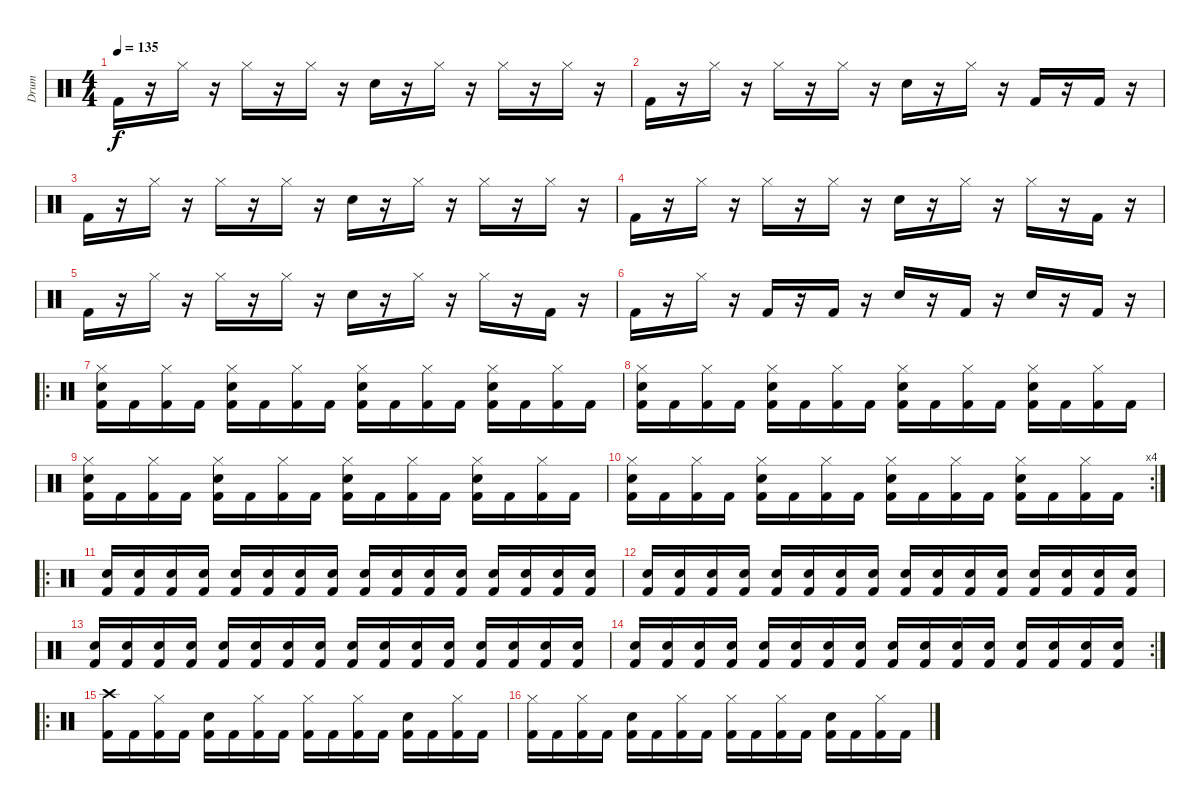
\track ("Drum" "Drum") {instrument percussion}
\staff {score}
\articulation defaults
\ts (4 4)
\tempo 135
\clef neutral
\ks c "Kick (hit) 2".16{dy f}
r.16 "Hi-Hat (closed)".16 r.16 "Hi-Hat (closed)".16 r.16 "Hi-Hat (closed)".16 r.16 "Electric Snare (hit)".16 r.16 "Hi-Hat (closed)".16 r.16 "Hi-Hat (closed)".16 r.16 "Hi-Hat (closed)".16 r.16 |
"Kick (hit) 2".16 r.16 "Hi-Hat (closed)".16 r.16 "Hi-Hat (closed)".16 r.16 "Hi-Hat (closed)".16 r.16 "Electric Snare (hit)".16 r.16 "Hi-Hat (closed)".16 r.16 "Kick (hit) 2".16 r.16 "Kick (hit) 2".16 r.16 |
"Kick (hit) 2".16 r.16 "Hi-Hat (closed)".16 r.16 "Hi-Hat (closed)".16 r.16 "Hi-Hat (closed)".16 r.16 "Electric Snare (hit)".16 r.16 "Hi-Hat (closed)".16 r.16 "Hi-Hat (closed)".16 r.16 "Hi-Hat (closed)".16 r.16 |
"Kick (hit) 2".16 r.16 "Hi-Hat (closed)".16 r.16 "Hi-Hat (closed)".16 r.16 "Hi-Hat (closed)".16 r.16 "Electric Snare (hit)".16 r.16 "Hi-Hat (closed)".16 r.16 "Hi-Hat (closed)".16 r.16 "Kick (hit) 2".16 r.16 |
"Kick (hit) 2".16 r.16 "Hi-Hat (closed)".16 r.16 "Hi-Hat (closed)".16 r.16 "Hi-Hat (closed)".16 r.16 "Electric Snare (hit)".16 r.16 "Hi-Hat (closed)".16 r.16 "Hi-Hat (closed)".16 r.16 "Kick (hit) 2".16 r.16 |
"Kick (hit) 2".16 r.16 "Hi-Hat (closed)".16 r.16 "Kick (hit) 2".16 r.16 "Kick (hit) 2".16 r.16 "Electric Snare (hit)".16 r.16 "Kick (hit) 2".16 r.16 "Electric Snare (hit)".16 r.16 "Kick (hit) 2".16 r.16 |
\ro
("Hi-Hat (closed)" "Electric Snare (hit)" "Kick (hit) 2").16 "Kick (hit) 2".16 ("Hi-Hat (closed)" "Kick (hit) 2").16 "Kick (hit) 2".16 ("Hi-Hat (closed)" "Electric Snare (hit)" "Kick (hit) 2").16 "Kick (hit) 2".16 ("Hi-Hat (closed)" "Kick (hit) 2").16 "Kick (hit) 2".16 ("Hi-Hat (closed)" "Electric Snare (hit)" "Kick (hit) 2").16 "Kick (hit) 2".16 ("Hi-Hat (closed)" "Kick (hit) 2").16 "Kick (hit) 2".16 ("Hi-Hat (closed)" "Electric Snare (hit)" "Kick (hit) 2").16 "Kick (hit) 2".16 ("Hi-Hat (closed)" "Kick (hit) 2").16 "Kick (hit) 2".16 |
("Hi-Hat (closed)" "Electric Snare (hit)" "Kick (hit) 2").16 "Kick (hit) 2".16 ("Hi-Hat (closed)" "Kick (hit) 2").16 "Kick (hit) 2".16 ("Hi-Hat (closed)" "Electric Snare (hit)" "Kick (hit) 2").16 "Kick (hit) 2".16 ("Hi-Hat (closed)" "Kick (hit) 2").16 "Kick (hit) 2".16 ("Hi-Hat (closed)" "Electric Snare (hit)" "Kick (hit) 2").16 "Kick (hit) 2".16 ("Hi-Hat (closed)" "Kick (hit) 2").16 "Kick (hit) 2".16 ("Hi-Hat (closed)" "Electric Snare (hit)" "Kick (hit) 2").16 "Kick (hit) 2".16 ("Hi-Hat (closed)" "Kick (hit) 2").16 "Kick (hit) 2".16 |
("Hi-Hat (closed)" "Electric Snare (hit)" "Kick (hit) 2").16 "Kick (hit) 2".16 ("Hi-Hat (closed)" "Kick (hit) 2").16 "Kick (hit) 2".16 ("Hi-Hat (closed)" "Electric Snare (hit)" "Kick (hit) 2").16 "Kick (hit) 2".16 ("Hi-Hat (closed)" "Kick (hit) 2").16 "Kick (hit) 2".16 ("Hi-Hat (closed)" "Electric Snare (hit)" "Kick (hit) 2").16 "Kick (hit) 2".16 ("Hi-Hat (closed)" "Kick (hit) 2").16 "Kick (hit) 2".16 ("Hi-Hat (closed)" "Electric Snare (hit)" "Kick (hit) 2").16 "Kick (hit) 2".16 ("Hi-Hat (closed)" "Kick (hit) 2").16 "Kick (hit) 2".16 |
\rc 4
("Hi-Hat (closed)" "Electric Snare (hit)" "Kick (hit) 2").16 "Kick (hit) 2".16 ("Hi-Hat (closed)" "Kick (hit) 2").16 "Kick (hit) 2".16 ("Hi-Hat (closed)" "Electric Snare (hit)" "Kick (hit) 2").16 "Kick (hit) 2".16 ("Hi-Hat (closed)" "Kick (hit) 2").16 "Kick (hit) 2".16 ("Hi-Hat (closed)" "Electric Snare (hit)" "Kick (hit) 2").16 "Kick (hit) 2".16 ("Hi-Hat (closed)" "Kick (hit) 2").16 "Kick (hit) 2".16 ("Hi-Hat (closed)" "Electric Snare (hit)" "Kick (hit) 2").16 "Kick (hit) 2".16 ("Hi-Hat (closed)" "Kick (hit) 2").16 "Kick (hit) 2".16 |
\ro
("Electric Snare (hit)" "Kick (hit) 2").16 ("Electric Snare (hit)" "Kick (hit) 2").16 ("Electric Snare (hit)" "Kick (hit) 2").16 ("Electric Snare (hit)" "Kick (hit) 2").16 ("Electric Snare (hit)" "Kick (hit) 2").16 ("Electric Snare (hit)" "Kick (hit) 2").16 ("Electric Snare (hit)" "Kick (hit) 2").16 ("Electric Snare (hit)" "Kick (hit) 2").16 ("Electric Snare (hit)" "Kick (hit) 2").16 ("Electric Snare (hit)" "Kick (hit) 2").16 ("Electric Snare (hit)" "Kick (hit) 2").16 ("Electric Snare (hit)" "Kick (hit) 2").16 ("Electric Snare (hit)" "Kick (hit) 2").16 ("Electric Snare (hit)" "Kick (hit) 2").16 ("Electric Snare (hit)" "Kick (hit) 2").16 ("Electric Snare (hit)" "Kick (hit) 2").16 |
("Electric Snare (hit)" "Kick (hit) 2").16 ("Electric Snare (hit)" "Kick (hit) 2").16 ("Electric Snare (hit)" "Kick (hit) 2").16 ("Electric Snare (hit)" "Kick (hit) 2").16 ("Electric Snare (hit)" "Kick (hit) 2").16 ("Electric Snare (hit)" "Kick (hit) 2").16 ("Electric Snare (hit)" "Kick (hit) 2").16 ("Electric Snare (hit)" "Kick (hit) 2").16 ("Electric Snare (hit)" "Kick (hit) 2").16 ("Electric Snare (hit)" "Kick (hit) 2").16 ("Electric Snare (hit)" "Kick (hit) 2").16 ("Electric Snare (hit)" "Kick (hit) 2").16 ("Electric Snare (hit)" "Kick (hit) 2").16 ("Electric Snare (hit)" "Kick (hit) 2").16 ("Electric Snare (hit)" "Kick (hit) 2").16 ("Electric Snare (hit)" "Kick (hit) 2").16 |
("Electric Snare (hit)" "Kick (hit) 2").16 ("Electric Snare (hit)" "Kick (hit) 2").16 ("Electric Snare (hit)" "Kick (hit) 2").16 ("Electric Snare (hit)" "Kick (hit) 2").16 ("Electric Snare (hit)" "Kick (hit) 2").16 ("Electric Snare (hit)" "Kick (hit) 2").16 ("Electric Snare (hit)" "Kick (hit) 2").16 ("Electric Snare (hit)" "Kick (hit) 2").16 ("Electric Snare (hit)" "Kick (hit) 2").16 ("Electric Snare (hit)" "Kick (hit) 2").16 ("Electric Snare (hit)" "Kick (hit) 2").16 ("Electric Snare (hit)" "Kick (hit) 2").16 ("Electric Snare (hit)" "Kick (hit) 2").16 ("Electric Snare (hit)" "Kick (hit) 2").16 ("Electric Snare (hit)" "Kick (hit) 2").16 ("Electric Snare (hit)" "Kick (hit) 2").16 |
\rc 2
("Electric Snare (hit)" "Kick (hit) 2").16 ("Electric Snare (hit)" "Kick (hit) 2").16 ("Electric Snare (hit)" "Kick (hit) 2").16 ("Electric Snare (hit)" "Kick (hit) 2").16 ("Electric Snare (hit)" "Kick (hit) 2").16 ("Electric Snare (hit)" "Kick (hit) 2").16 ("Electric Snare (hit)" "Kick (hit) 2").16 ("Electric Snare (hit)" "Kick (hit) 2").16 ("Electric Snare (hit)" "Kick (hit) 2").16 ("Electric Snare (hit)" "Kick (hit) 2").16 ("Electric Snare (hit)" "Kick (hit) 2").16 ("Electric Snare (hit)" "Kick (hit) 2").16 ("Electric Snare (hit)" "Kick (hit) 2").16 ("Electric Snare (hit)" "Kick (hit) 2").16 ("Electric Snare (hit)" "Kick (hit) 2").16 ("Electric Snare (hit)" "Kick (hit) 2").16 |
\ro
("Crash high (hit)" "Kick (hit) 2").16 "Kick (hit) 2".16 ("Hi-Hat (closed)" "Kick (hit) 2").16 "Kick (hit) 2".16 ("Electric Snare (hit)" "Kick (hit) 2").16 "Kick (hit) 2".16 ("Hi-Hat (closed)" "Kick (hit) 2").16 "Kick (hit) 2".16 ("Hi-Hat (closed)" "Kick (hit) 2").16 "Kick (hit) 2".16 ("Hi-Hat (closed)" "Kick (hit) 2").16 "Kick (hit) 2".16 ("Electric Snare (hit)" "Kick (hit) 2").16 "Kick (hit) 2".16 ("Hi-Hat (closed)" "Kick (hit) 2").16 "Kick (hit) 2".16 |
("Hi-Hat (closed)" "Kick (hit) 2").16 "Kick (hit) 2".16 ("Hi-Hat (closed)" "Kick (hit) 2").16 "Kick (hit) 2".16 ("Electric Snare (hit)" "Kick (hit) 2").16 "Kick (hit) 2".16 ("Hi-Hat (closed)" "Kick (hit) 2").16 "Kick (hit) 2".16 ("Hi-Hat (closed)" "Kick (hit) 2").16 "Kick (hit) 2".16 ("Hi-Hat (closed)" "Kick (hit) 2").16 "Kick (hit) 2".16 ("Electric Snare (hit)" "Kick (hit) 2").16 "Kick (hit) 2".16 ("Hi-Hat (closed)" "Kick (hit) 2").16 "Kick (hit) 2".16
